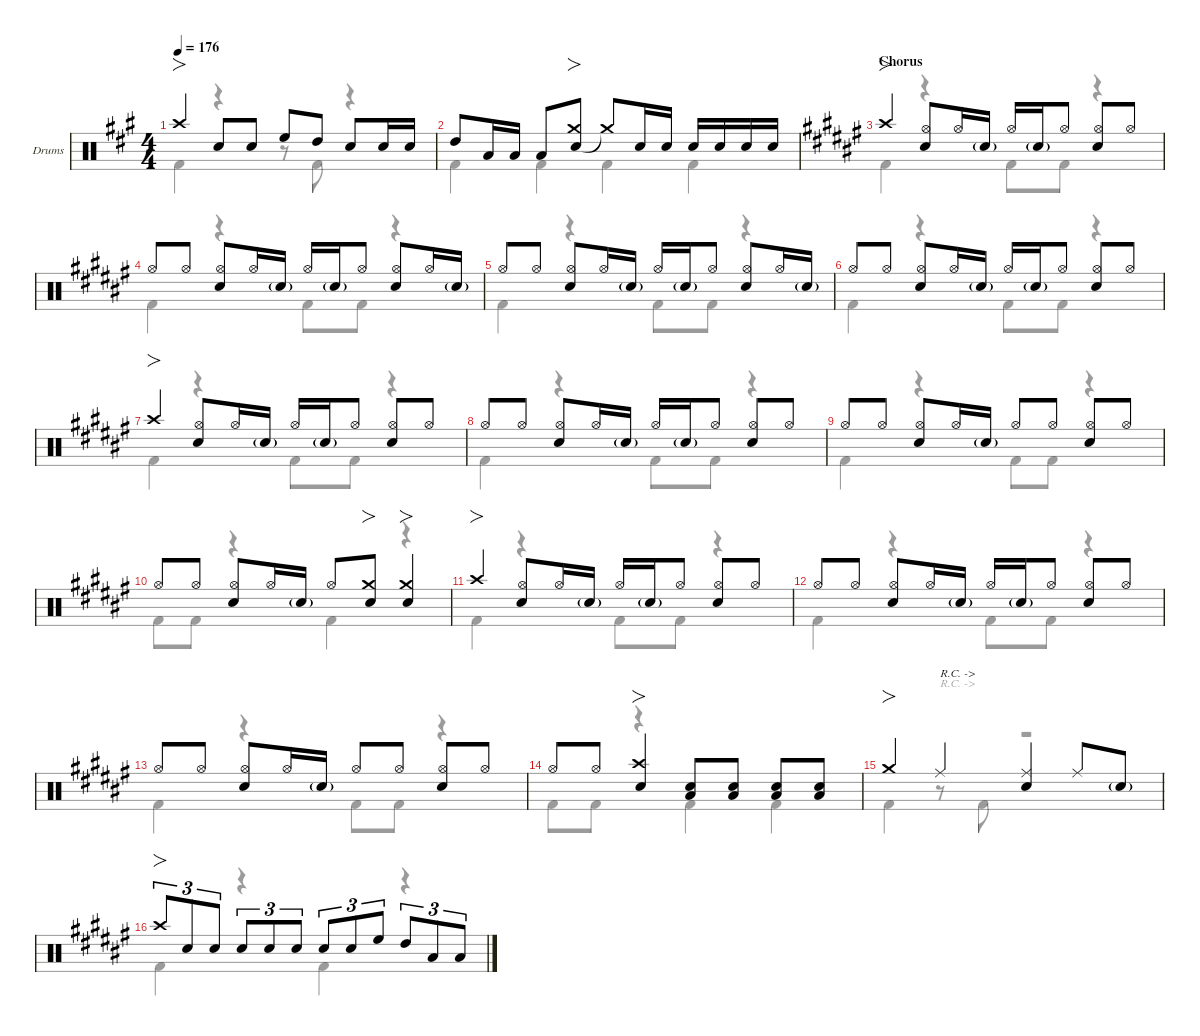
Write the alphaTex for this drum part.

\defaultSystemsLayout 4
\hideDynamics
\bracketExtendMode nobrackets
\firstSystemTrackNameOrientation horizontal
\track ("Drums" "Drums") {defaultSystemsLayout 4 instrument percussion}
\staff {score}
\articulation defaults
\voice
\ts (4 4)
\tempo 176
\clef neutral
\ks a "Crash high (hit)"{acc forcenatural}.4{fo dy f beam Up} "Snare (hit) 2"{acc forcenatural}.8{beam Up} "Snare (hit) 2"{acc forcenatural}.8{beam Up} "High Floor Tom (hit)"{acc forcenatural}.8{beam Up} "High Tom (hit)"{acc forcenatural}.8{beam Up beam split} "Snare (hit) 2"{acc forcenatural}.8{beam Up} "Snare (hit) 2"{acc forcenatural}.16{beam Up} "Snare (hit) 2"{acc forcenatural}.16{dy mf beam Up}
|
"High Tom (hit)"{acc forcenatural}.8{dy f beam Up} "Low Tom (hit)"{acc forcenatural}.16{beam Up} "Low Tom (hit)"{acc forcenatural}.16{beam Up beam split} "Low Tom (hit)"{acc forcenatural}.8{beam Up} ("Snare (hit) 2"{acc forcenatural} "Crash medium (hit)"{acc forcenatural}).8{fo beam Up} "Crash medium (hit)"{t acc forcenatural}.8{beam Up} "Snare (hit) 2"{acc forcenatural}.16{beam Up} "Snare (hit) 2"{acc forcenatural}.16{dy mf beam Up beam split} "Snare (hit) 2"{acc forcenatural}.16{dy f beam Up} "Snare (hit) 2"{acc forcenatural}.16{dy mp beam Up} "Snare (hit) 2"{acc forcenatural}.16{dy f beam Up} "Snare (hit) 2"{acc forcenatural}.16{dy mp beam Up} |
\section ("" "Chorus")
\ks f# "Crash high (hit)"{acc forcenatural}.4{fo dy f beam Up}
("Hi-Hat (open)"{acc forcenatural} "Snare (hit) 2"{acc forcenatural}).8{beam Up} "Hi-Hat (open)"{acc forcenatural}.16{dy mf beam Up} "Snare (hit) 2"{g acc forcenatural}.16{beam Up} "Hi-Hat (open)"{acc forcenatural}.16{dy f beam Up} "Snare (hit) 2"{g acc forcenatural}.16{dy mf beam Up} "Hi-Hat (open)"{acc forcenatural}.8{beam Up beam split} ("Hi-Hat (open)"{acc forcenatural} "Snare (hit) 2"{acc forcenatural}).8{dy f beam Up} "Hi-Hat (open)"{acc forcenatural}.8{dy mf beam Up} |
"Hi-Hat (open)"{acc forcenatural}.8{dy f beam Up} "Hi-Hat (open)"{acc forcenatural}.8{dy mf beam Up beam split} ("Hi-Hat (open)"{acc forcenatural} "Snare (hit) 2"{acc forcenatural}).8{dy f beam Up} "Hi-Hat (open)"{acc forcenatural}.16{dy mf beam Up} "Snare (hit) 2"{g acc forcenatural}.16{beam Up} "Hi-Hat (open)"{acc forcenatural}.16{dy f beam Up} "Snare (hit) 2"{g acc forcenatural}.16{dy mf beam Up} "Hi-Hat (open)"{acc forcenatural}.8{beam Up beam split} ("Hi-Hat (open)"{acc forcenatural} "Snare (hit) 2"{acc forcenatural}).8{dy f beam Up} "Hi-Hat (open)"{acc forcenatural}.16{dy mf beam Up} "Snare (hit) 2"{g acc forcenatural}.16{beam Up} |
"Hi-Hat (open)"{acc forcenatural}.8{dy f beam Up} "Hi-Hat (open)"{acc forcenatural}.8{dy mf beam Up beam split} ("Hi-Hat (open)"{acc forcenatural} "Snare (hit) 2"{acc forcenatural}).8{dy f beam Up} "Hi-Hat (open)"{acc forcenatural}.16{dy mf beam Up} "Snare (hit) 2"{g acc forcenatural}.16{beam Up} "Hi-Hat (open)"{acc forcenatural}.16{dy f beam Up} "Snare (hit) 2"{g acc forcenatural}.16{dy mf beam Up} "Hi-Hat (open)"{acc forcenatural}.8{beam Up beam split} ("Hi-Hat (open)"{acc forcenatural} "Snare (hit) 2"{acc forcenatural}).8{dy f beam Up} "Hi-Hat (open)"{acc forcenatural}.16{dy mf beam Up} "Snare (hit) 2"{g acc forcenatural}.16{beam Up} |
"Hi-Hat (open)"{acc forcenatural}.8{dy f beam Up} "Hi-Hat (open)"{acc forcenatural}.8{dy mf beam Up beam split} ("Hi-Hat (open)"{acc forcenatural} "Snare (hit) 2"{acc forcenatural}).8{dy f beam Up} "Hi-Hat (open)"{acc forcenatural}.16{dy mf beam Up} "Snare (hit) 2"{g acc forcenatural}.16{beam Up} "Hi-Hat (open)"{acc forcenatural}.16{dy f beam Up} "Snare (hit) 2"{g acc forcenatural}.16{dy mf beam Up} "Hi-Hat (open)"{acc forcenatural}.8{beam Up beam split} ("Hi-Hat (open)"{acc forcenatural} "Snare (hit) 2"{acc forcenatural}).8{dy f beam Up} "Hi-Hat (open)"{acc forcenatural}.8{dy mf beam Up} |
"Crash high (hit)"{acc forcenatural}.4{fo dy f beam Up} ("Hi-Hat (open)"{acc forcenatural} "Snare (hit) 2"{acc forcenatural}).8{beam Up} "Hi-Hat (open)"{acc forcenatural}.16{dy mf beam Up} "Snare (hit) 2"{g acc forcenatural}.16{beam Up} "Hi-Hat (open)"{acc forcenatural}.16{dy f beam Up} "Snare (hit) 2"{g acc forcenatural}.16{dy mf beam Up} "Hi-Hat (open)"{acc forcenatural}.8{beam Up beam split} ("Hi-Hat (open)"{acc forcenatural} "Snare (hit) 2"{acc forcenatural}).8{dy f beam Up} "Hi-Hat (open)"{acc forcenatural}.8{dy mf beam Up} |
"Hi-Hat (open)"{acc forcenatural}.8{dy f beam Up} "Hi-Hat (open)"{acc forcenatural}.8{dy mf beam Up beam split} ("Hi-Hat (open)"{acc forcenatural} "Snare (hit) 2"{acc forcenatural}).8{dy f beam Up} "Hi-Hat (open)"{acc forcenatural}.16{dy mf beam Up} "Snare (hit) 2"{g acc forcenatural}.16{beam Up} "Hi-Hat (open)"{acc forcenatural}.16{dy f beam Up} "Snare (hit) 2"{g acc forcenatural}.16{dy mf beam Up} "Hi-Hat (open)"{acc forcenatural}.8{beam Up beam split} ("Hi-Hat (open)"{acc forcenatural} "Snare (hit) 2"{acc forcenatural}).8{dy f beam Up} "Hi-Hat (open)"{acc forcenatural}.8{dy mf beam Up} |
"Hi-Hat (open)"{acc forcenatural}.8{dy f beam Up} "Hi-Hat (open)"{acc forcenatural}.8{dy mf beam Up beam split} ("Hi-Hat (open)"{acc forcenatural} "Snare (hit) 2"{acc forcenatural}).8{dy f beam Up} "Hi-Hat (open)"{acc forcenatural}.16{dy mf beam Up} "Snare (hit) 2"{g acc forcenatural}.16{beam Up} "Hi-Hat (open)"{acc forcenatural}.8{dy f beam Up} "Hi-Hat (open)"{acc forcenatural}.8{dy mf beam Up} ("Hi-Hat (open)"{acc forcenatural} "Snare (hit) 2"{acc forcenatural}).8{dy f beam Up} "Hi-Hat (open)"{acc forcenatural}.8{dy mf beam Up} |
"Hi-Hat (open)"{acc forcenatural}.8{dy f beam Up} "Hi-Hat (open)"{acc forcenatural}.8{dy mf beam Up beam split} ("Hi-Hat (open)"{acc forcenatural} "Snare (hit) 2"{acc forcenatural}).8{dy f beam Up} "Hi-Hat (open)"{acc forcenatural}.16{dy mf beam Up} "Snare (hit) 2"{g acc forcenatural}.16{beam Up} "Hi-Hat (open)"{acc forcenatural}.8{dy f beam Up} ("Snare (hit) 2"{acc forcenatural} "Crash medium (hit)"{acc forcenatural}).8{fo beam Up} ("Snare (hit) 2"{acc forcenatural} "Crash medium (hit)"{acc forcenatural}).4{fo beam Up} |
"Crash high (hit)"{acc forcenatural}.4{fo beam Up} ("Hi-Hat (open)"{acc forcenatural} "Snare (hit) 2"{acc forcenatural}).8{beam Up} "Hi-Hat (open)"{acc forcenatural}.16{dy mf beam Up} "Snare (hit) 2"{g acc forcenatural}.16{beam Up} "Hi-Hat (open)"{acc forcenatural}.16{dy f beam Up} "Snare (hit) 2"{g acc forcenatural}.16{dy mf beam Up} "Hi-Hat (open)"{acc forcenatural}.8{beam Up beam split} ("Hi-Hat (open)"{acc forcenatural} "Snare (hit) 2"{acc forcenatural}).8{dy f beam Up} "Hi-Hat (open)"{acc forcenatural}.8{dy mf beam Up} |
"Hi-Hat (open)"{acc forcenatural}.8{dy f beam Up} "Hi-Hat (open)"{acc forcenatural}.8{dy mf beam Up beam split} ("Hi-Hat (open)"{acc forcenatural} "Snare (hit) 2"{acc forcenatural}).8{dy f beam Up} "Hi-Hat (open)"{acc forcenatural}.16{dy mf beam Up} "Snare (hit) 2"{g acc forcenatural}.16{beam Up} "Hi-Hat (open)"{acc forcenatural}.16{dy f beam Up} "Snare (hit) 2"{g acc forcenatural}.16{dy mf beam Up} "Hi-Hat (open)"{acc forcenatural}.8{beam Up beam split} ("Hi-Hat (open)"{acc forcenatural} "Snare (hit) 2"{acc forcenatural}).8{dy f beam Up} "Hi-Hat (open)"{acc forcenatural}.8{dy mf beam Up} |
"Hi-Hat (open)"{acc forcenatural}.8{dy f beam Up} "Hi-Hat (open)"{acc forcenatural}.8{dy mf beam Up beam split} ("Hi-Hat (open)"{acc forcenatural} "Snare (hit) 2"{acc forcenatural}).8{dy f beam Up} "Hi-Hat (open)"{acc forcenatural}.16{dy mf beam Up} "Snare (hit) 2"{g acc forcenatural}.16{beam Up} "Hi-Hat (open)"{acc forcenatural}.8{dy f beam Up} "Hi-Hat (open)"{acc forcenatural}.8{dy mf beam Up} ("Hi-Hat (open)"{acc forcenatural} "Snare (hit) 2"{acc forcenatural}).8{dy f beam Up} "Hi-Hat (open)"{acc forcenatural}.8{dy mf beam Up} |
"Hi-Hat (open)"{acc forcenatural}.8{dy f beam Up} "Hi-Hat (open)"{acc forcenatural}.8{dy mf beam Up beam split} ("Crash high (hit)"{acc forcenatural} "Snare (hit) 2"{acc forcenatural}).4{fo dy f beam Up} ("Low Tom (hit)"{acc forcenatural} "Snare (hit) 2"{acc forcenatural}).8{beam Up} ("Low Tom (hit)"{acc forcenatural} "Snare (hit) 2"{acc forcenatural}).8{beam Up} ("Low Tom (hit)"{acc forcenatural} "Snare (hit) 2"{acc forcenatural}).8{beam Up} ("Low Tom (hit)"{acc forcenatural} "Snare (hit) 2"{acc forcenatural}).8{beam Up} |
"Crash medium (hit)"{acc forcenatural}.4{fo beam Up} "Ride (middle)"{acc forcenatural}.4{txt "R.C. ->" beam Up} ("Ride (middle)"{acc forcenatural} "Snare (hit) 2"{acc forcenatural}).4{beam Up} "Ride (middle)"{acc forcenatural}.8{beam Up} "Snare (hit) 2"{g acc forcenatural}.8{dy mf beam Up} |
"Crash high (hit)"{acc forcenatural}.8{fo tu (3 2) dy f beam Up} "Snare (hit) 2"{acc forcenatural}.8{tu (3 2) beam Up} "Snare (hit) 2"{acc forcenatural}.8{tu (3 2) beam Up} "Snare (hit) 2"{acc forcenatural}.8{tu (3 2) beam Up} "Snare (hit) 2"{acc forcenatural}.8{tu (3 2) beam Up} "Snare (hit) 2"{acc forcenatural}.8{tu (3 2) beam Up} "Snare (hit) 2"{acc forcenatural}.8{tu (3 2) beam Up} "Snare (hit) 2"{acc forcenatural}.8{tu (3 2) beam Up} "High Floor Tom (hit)"{acc forcenatural}.8{tu (3 2) beam Up} "High Tom (hit)"{acc forcenatural}.8{tu (3 2) beam Up} "Low Tom (hit)"{acc forcenatural}.8{tu (3 2) beam Up} "Low Tom (hit)"{acc forcenatural}.8{tu (3 2) beam Up}
\voice
\clef neutral
\ottava regular
\simile none
\ks a "Kick (hit) 2"{acc forcenatural}.4{dy f beam Down}
r.4{beam Down} r.8{beam Down} "Kick (hit) 2"{acc forcenatural}.8{beam Down} r.4{beam Down} |
"Kick (hit) 2"{acc forcenatural}.4{beam Down} "Kick (hit) 2"{acc forcenatural}.4{beam Down} "Kick (hit) 2"{acc forcenatural}.4{beam Down} "Kick (hit) 2"{acc forcenatural}.4{beam Down} |
\ks f# "Kick (hit) 2"{acc forcenatural}.4{beam Down}
r.4{beam Down} "Kick (hit) 2"{acc forcenatural}.8{beam Down} "Kick (hit) 2"{acc forcenatural}.8{beam Down} r.4{beam Down} |
"Kick (hit) 2"{acc forcenatural}.4{beam Down} r.4{beam Down} "Kick (hit) 2"{acc forcenatural}.8{beam Down} "Kick (hit) 2"{acc forcenatural}.8{beam Down} r.4{beam Down} |
"Kick (hit) 2"{acc forcenatural}.4{beam Down} r.4{beam Down} "Kick (hit) 2"{acc forcenatural}.8{beam Down} "Kick (hit) 2"{acc forcenatural}.8{beam Down} r.4{beam Down} |
"Kick (hit) 2"{acc forcenatural}.4{beam Down} r.4{beam Down} "Kick (hit) 2"{acc forcenatural}.8{beam Down} "Kick (hit) 2"{acc forcenatural}.8{beam Down} r.4{beam Down} |
"Kick (hit) 2"{acc forcenatural}.4{beam Down} r.4{beam Down} "Kick (hit) 2"{acc forcenatural}.8{beam Down} "Kick (hit) 2"{acc forcenatural}.8{beam Down} r.4{beam Down} |
"Kick (hit) 2"{acc forcenatural}.4{beam Down} r.4{beam Down} "Kick (hit) 2"{acc forcenatural}.8{beam Down} "Kick (hit) 2"{acc forcenatural}.8{beam Down} r.4{beam Down} |
"Kick (hit) 2"{acc forcenatural}.4{beam Down} r.4{beam Down} "Kick (hit) 2"{acc forcenatural}.8{beam Down} "Kick (hit) 2"{acc forcenatural}.8{beam Down} r.4{beam Down} |
"Kick (hit) 2"{acc forcenatural}.8{beam Down} "Kick (hit) 2"{acc forcenatural}.8{beam Down} r.4{beam Down} "Kick (hit) 2"{acc forcenatural}.4{beam Down} r.4{beam Down} |
"Kick (hit) 2"{acc forcenatural}.4{beam Down} r.4{beam Down} "Kick (hit) 2"{acc forcenatural}.8{beam Down} "Kick (hit) 2"{acc forcenatural}.8{beam Down} r.4{beam Down} |
"Kick (hit) 2"{acc forcenatural}.4{beam Down} r.4{beam Down} "Kick (hit) 2"{acc forcenatural}.8{beam Down} "Kick (hit) 2"{acc forcenatural}.8{beam Down} r.4{beam Down} |
"Kick (hit) 2"{acc forcenatural}.4{beam Down} r.4{beam Down} "Kick (hit) 2"{acc forcenatural}.8{beam Down} "Kick (hit) 2"{acc forcenatural}.8{beam Down} r.4{beam Down} |
"Kick (hit) 2"{acc forcenatural}.8{beam Down} "Kick (hit) 2"{acc forcenatural}.8{beam Down} r.4{beam Down} "Kick (hit) 2"{acc forcenatural}.4{beam Down} "Kick (hit) 2"{acc forcenatural}.4{beam Down} |
"Kick (hit) 2"{acc forcenatural}.4{beam Down} r.8{txt "R.C. ->" beam Down} "Kick (hit) 2"{acc forcenatural}.8{beam Down} r.2{beam Down} |
"Kick (hit) 2"{acc forcenatural}.4{beam Down} r.4{beam Down} "Kick (hit) 2"{acc forcenatural}.4{beam Down} r.4{beam Down}
